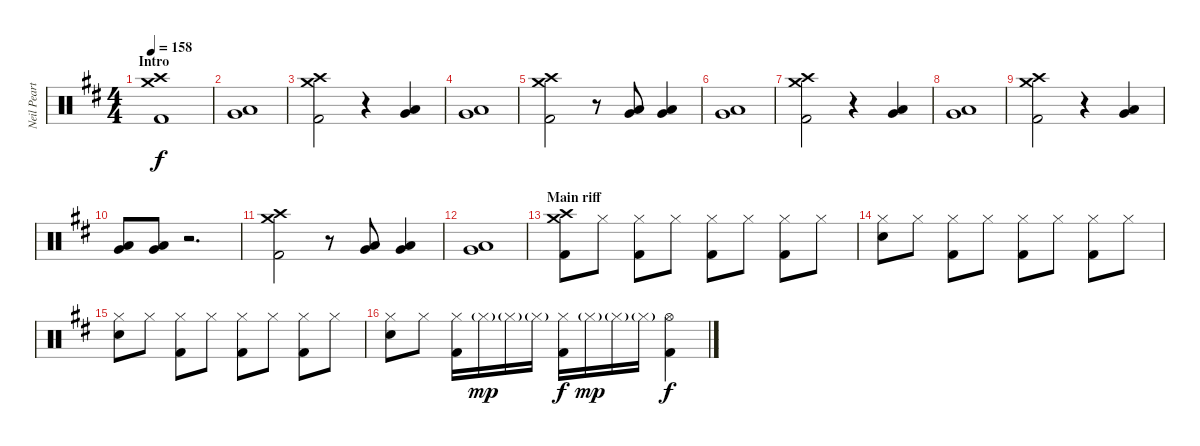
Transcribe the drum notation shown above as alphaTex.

\track ("Neil Peart (drums)" "Neil Peart") {instrument percussion}
\staff {score}
\articulation defaults
\ts (4 4)
\section ("" "Intro")
\tempo 158
\clef neutral
\ks bminor
("Crash medium (hit)" "Crash high (hit)" "Kick (hit) 2").1{dy f} |
("Low Tom (hit)" "Very Low Tom (hit)").1 |
("Crash medium (hit)" "Crash high (hit)" "Kick (hit) 2").2 r.4 ("Low Tom (hit)" "Very Low Tom (hit)").4 |
("Low Tom (hit)" "Very Low Tom (hit)").1 |
("Crash medium (hit)" "Crash high (hit)" "Kick (hit) 2").2 r.8 ("Very Low Tom (hit)" "Low Floor Tom (hit)").8 ("Very Low Tom (hit)" "Low Floor Tom (hit)").4 |
("Very Low Tom (hit)" "Low Floor Tom (hit)").1 |
("Crash medium (hit)" "Crash high (hit)" "Kick (hit) 2").2 r.4 ("Low Tom (hit)" "Very Low Tom (hit)").4 |
("Low Tom (hit)" "Very Low Tom (hit)").1 |
("Crash medium (hit)" "Crash high (hit)" "Kick (hit) 2").2 r.4 ("Very Low Tom (hit)" "Low Floor Tom (hit)").4 |
("Very Low Tom (hit)" "Low Floor Tom (hit)").8 ("Very Low Tom (hit)" "Low Floor Tom (hit)").8 r.2{d} |
("Crash medium (hit)" "Crash high (hit)" "Kick (hit) 2").2 r.8 ("Low Tom (hit)" "Very Low Tom (hit)").8 ("Low Tom (hit)" "Very Low Tom (hit)").4 |
("Low Tom (hit)" "Very Low Tom (hit)").1 |
\section ("" "Main riff")
("Crash high (hit)" "Crash medium (hit)" "Kick (hit) 2").8 "Hi-Hat (closed)".8 ("Hi-Hat (closed)" "Kick (hit) 2").8 "Hi-Hat (closed)".8 ("Hi-Hat (closed)" "Kick (hit) 2").8 "Hi-Hat (closed)".8 ("Hi-Hat (closed)" "Kick (hit) 2").8 "Hi-Hat (closed)".8 |
("Hi-Hat (closed)" "Electric Snare (hit)").8 "Hi-Hat (closed)".8 ("Hi-Hat (closed)" "Kick (hit) 2").8 "Hi-Hat (closed)".8 ("Hi-Hat (closed)" "Kick (hit) 2").8 "Hi-Hat (closed)".8 ("Hi-Hat (closed)" "Kick (hit) 2").8 "Hi-Hat (closed)".8 |
("Hi-Hat (closed)" "Electric Snare (hit)").8 "Hi-Hat (closed)".8 ("Hi-Hat (closed)" "Kick (hit) 2").8 "Hi-Hat (closed)".8 ("Hi-Hat (closed)" "Kick (hit) 2").8 "Hi-Hat (closed)".8 ("Hi-Hat (closed)" "Kick (hit) 2").8 "Hi-Hat (closed)".8 |
("Hi-Hat (closed)" "Electric Snare (hit)").8 "Hi-Hat (closed)".8 ("Hi-Hat (closed)" "Kick (hit) 2").16 "Hi-Hat (closed)"{g}.16{dy mp} "Hi-Hat (closed)"{g}.16 "Hi-Hat (closed)"{g}.16 ("Hi-Hat (closed)" "Kick (hit) 2").16{dy f} "Hi-Hat (closed)"{g}.16{dy mp} "Hi-Hat (closed)"{g}.16 "Hi-Hat (closed)"{g}.16 ("Hi-Hat (open)" "Kick (hit) 2").4{dy f}
